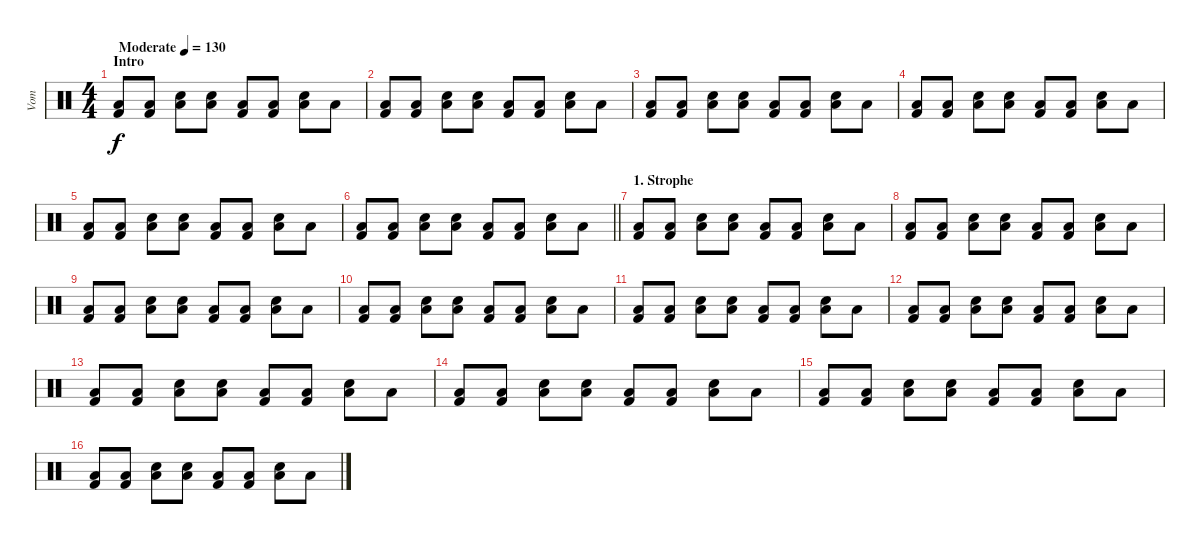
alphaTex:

\track ("Vom" "Vom") {instrument percussion}
\staff {score}
\articulation defaults
\ts (4 4)
\section ("" "Intro")
\tempo (130 "Moderate")
\clef neutral
\ks c
("Low Floor Tom (hit)" "Kick (hit) 2").8{dy f} ("Low Floor Tom (hit)" "Kick (hit) 2").8 ("Snare (hit) 2" "Low Floor Tom (hit)").8 ("Snare (hit) 2" "Low Floor Tom (hit)").8 ("Low Floor Tom (hit)" "Kick (hit) 2").8 ("Low Floor Tom (hit)" "Kick (hit) 2").8 ("Snare (hit) 2" "Low Floor Tom (hit)").8 "Low Floor Tom (hit)".8 |
("Low Floor Tom (hit)" "Kick (hit) 2").8 ("Low Floor Tom (hit)" "Kick (hit) 2").8 ("Snare (hit) 2" "Low Floor Tom (hit)").8 ("Snare (hit) 2" "Low Floor Tom (hit)").8 ("Low Floor Tom (hit)" "Kick (hit) 2").8 ("Low Floor Tom (hit)" "Kick (hit) 2").8 ("Snare (hit) 2" "Low Floor Tom (hit)").8 "Low Floor Tom (hit)".8 |
("Low Floor Tom (hit)" "Kick (hit) 2").8 ("Low Floor Tom (hit)" "Kick (hit) 2").8 ("Snare (hit) 2" "Low Floor Tom (hit)").8 ("Snare (hit) 2" "Low Floor Tom (hit)").8 ("Low Floor Tom (hit)" "Kick (hit) 2").8 ("Low Floor Tom (hit)" "Kick (hit) 2").8 ("Snare (hit) 2" "Low Floor Tom (hit)").8 "Low Floor Tom (hit)".8 |
("Low Floor Tom (hit)" "Kick (hit) 2").8 ("Low Floor Tom (hit)" "Kick (hit) 2").8 ("Snare (hit) 2" "Low Floor Tom (hit)").8 ("Snare (hit) 2" "Low Floor Tom (hit)").8 ("Low Floor Tom (hit)" "Kick (hit) 2").8 ("Low Floor Tom (hit)" "Kick (hit) 2").8 ("Snare (hit) 2" "Low Floor Tom (hit)").8 "Low Floor Tom (hit)".8 |
("Low Floor Tom (hit)" "Kick (hit) 2").8 ("Low Floor Tom (hit)" "Kick (hit) 2").8 ("Snare (hit) 2" "Low Floor Tom (hit)").8 ("Snare (hit) 2" "Low Floor Tom (hit)").8 ("Low Floor Tom (hit)" "Kick (hit) 2").8 ("Low Floor Tom (hit)" "Kick (hit) 2").8 ("Snare (hit) 2" "Low Floor Tom (hit)").8 "Low Floor Tom (hit)".8 |
\barLineRight lightlight
("Low Floor Tom (hit)" "Kick (hit) 2").8 ("Low Floor Tom (hit)" "Kick (hit) 2").8 ("Snare (hit) 2" "Low Floor Tom (hit)").8 ("Snare (hit) 2" "Low Floor Tom (hit)").8 ("Low Floor Tom (hit)" "Kick (hit) 2").8 ("Low Floor Tom (hit)" "Kick (hit) 2").8 ("Snare (hit) 2" "Low Floor Tom (hit)").8 "Low Floor Tom (hit)".8 |
\section ("" "1. Strophe")
("Low Floor Tom (hit)" "Kick (hit) 2").8 ("Low Floor Tom (hit)" "Kick (hit) 2").8 ("Snare (hit) 2" "Low Floor Tom (hit)").8 ("Snare (hit) 2" "Low Floor Tom (hit)").8 ("Low Floor Tom (hit)" "Kick (hit) 2").8 ("Low Floor Tom (hit)" "Kick (hit) 2").8 ("Snare (hit) 2" "Low Floor Tom (hit)").8 "Low Floor Tom (hit)".8 |
("Low Floor Tom (hit)" "Kick (hit) 2").8 ("Low Floor Tom (hit)" "Kick (hit) 2").8 ("Snare (hit) 2" "Low Floor Tom (hit)").8 ("Snare (hit) 2" "Low Floor Tom (hit)").8 ("Low Floor Tom (hit)" "Kick (hit) 2").8 ("Low Floor Tom (hit)" "Kick (hit) 2").8 ("Snare (hit) 2" "Low Floor Tom (hit)").8 "Low Floor Tom (hit)".8 |
("Low Floor Tom (hit)" "Kick (hit) 2").8 ("Low Floor Tom (hit)" "Kick (hit) 2").8 ("Snare (hit) 2" "Low Floor Tom (hit)").8 ("Snare (hit) 2" "Low Floor Tom (hit)").8 ("Low Floor Tom (hit)" "Kick (hit) 2").8 ("Low Floor Tom (hit)" "Kick (hit) 2").8 ("Snare (hit) 2" "Low Floor Tom (hit)").8 "Low Floor Tom (hit)".8 |
("Low Floor Tom (hit)" "Kick (hit) 2").8 ("Low Floor Tom (hit)" "Kick (hit) 2").8 ("Snare (hit) 2" "Low Floor Tom (hit)").8 ("Snare (hit) 2" "Low Floor Tom (hit)").8 ("Low Floor Tom (hit)" "Kick (hit) 2").8 ("Low Floor Tom (hit)" "Kick (hit) 2").8 ("Snare (hit) 2" "Low Floor Tom (hit)").8 "Low Floor Tom (hit)".8 |
("Low Floor Tom (hit)" "Kick (hit) 2").8 ("Low Floor Tom (hit)" "Kick (hit) 2").8 ("Snare (hit) 2" "Low Floor Tom (hit)").8 ("Snare (hit) 2" "Low Floor Tom (hit)").8 ("Low Floor Tom (hit)" "Kick (hit) 2").8 ("Low Floor Tom (hit)" "Kick (hit) 2").8 ("Snare (hit) 2" "Low Floor Tom (hit)").8 "Low Floor Tom (hit)".8 |
("Low Floor Tom (hit)" "Kick (hit) 2").8 ("Low Floor Tom (hit)" "Kick (hit) 2").8 ("Snare (hit) 2" "Low Floor Tom (hit)").8 ("Snare (hit) 2" "Low Floor Tom (hit)").8 ("Low Floor Tom (hit)" "Kick (hit) 2").8 ("Low Floor Tom (hit)" "Kick (hit) 2").8 ("Snare (hit) 2" "Low Floor Tom (hit)").8 "Low Floor Tom (hit)".8 |
("Low Floor Tom (hit)" "Kick (hit) 2").8 ("Low Floor Tom (hit)" "Kick (hit) 2").8 ("Snare (hit) 2" "Low Floor Tom (hit)").8 ("Snare (hit) 2" "Low Floor Tom (hit)").8 ("Low Floor Tom (hit)" "Kick (hit) 2").8 ("Low Floor Tom (hit)" "Kick (hit) 2").8 ("Snare (hit) 2" "Low Floor Tom (hit)").8 "Low Floor Tom (hit)".8 |
("Low Floor Tom (hit)" "Kick (hit) 2").8 ("Low Floor Tom (hit)" "Kick (hit) 2").8 ("Snare (hit) 2" "Low Floor Tom (hit)").8 ("Snare (hit) 2" "Low Floor Tom (hit)").8 ("Low Floor Tom (hit)" "Kick (hit) 2").8 ("Low Floor Tom (hit)" "Kick (hit) 2").8 ("Snare (hit) 2" "Low Floor Tom (hit)").8 "Low Floor Tom (hit)".8 |
("Low Floor Tom (hit)" "Kick (hit) 2").8 ("Low Floor Tom (hit)" "Kick (hit) 2").8 ("Snare (hit) 2" "Low Floor Tom (hit)").8 ("Snare (hit) 2" "Low Floor Tom (hit)").8 ("Low Floor Tom (hit)" "Kick (hit) 2").8 ("Low Floor Tom (hit)" "Kick (hit) 2").8 ("Snare (hit) 2" "Low Floor Tom (hit)").8 "Low Floor Tom (hit)".8 |
("Low Floor Tom (hit)" "Kick (hit) 2").8 ("Low Floor Tom (hit)" "Kick (hit) 2").8 ("Snare (hit) 2" "Low Floor Tom (hit)").8 ("Snare (hit) 2" "Low Floor Tom (hit)").8 ("Low Floor Tom (hit)" "Kick (hit) 2").8 ("Low Floor Tom (hit)" "Kick (hit) 2").8 ("Snare (hit) 2" "Low Floor Tom (hit)").8 "Low Floor Tom (hit)".8
